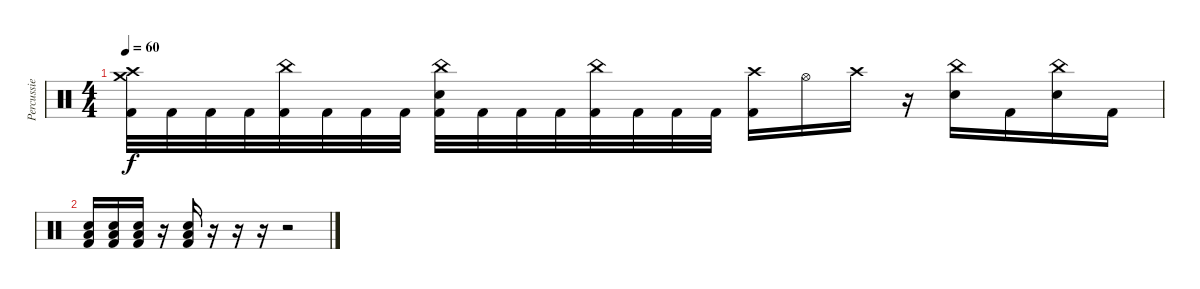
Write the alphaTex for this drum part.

\track ("Percussie" "Percussie") {instrument percussion}
\staff {score}
\articulation defaults
\ts (4 4)
\tempo 60
\clef neutral
\ks c
("Crash medium (hit)" "Crash high (hit)" "Kick (hit) 2").32{dy f} "Kick (hit) 2".32 "Kick (hit) 2".32 "Kick (hit) 2".32 ("China (hit)" "Kick (hit) 2").32 "Kick (hit) 2".32 "Kick (hit) 2".32 "Kick (hit) 2".32 ("China (hit)" "Electric Snare (hit)" "Kick (hit) 2").32 "Kick (hit) 2".32 "Kick (hit) 2".32 "Kick (hit) 2".32 ("China (hit)" "Kick (hit) 2").32 "Kick (hit) 2".32 "Kick (hit) 2".32 "Kick (hit) 2".32 ("Crash high (hit)" "Kick (hit) 2").16 "Hi-Hat (open)".16 "Crash high (hit)".16 r.16 ("China (hit)" "Electric Snare (hit)").16 "Kick (hit) 2".16 ("China (hit)" "Electric Snare (hit)").16 "Kick (hit) 2".16 |
("Low Floor Tom (hit)" "Electric Snare (hit)" "Kick (hit) 2").16 ("Low Floor Tom (hit)" "Electric Snare (hit)" "Kick (hit) 2").16 ("Low Floor Tom (hit)" "Electric Snare (hit)" "Kick (hit) 2").16 r.16 ("Low Floor Tom (hit)" "Electric Snare (hit)" "Kick (hit) 2").16 r.16 r.16 r.16 r.2
